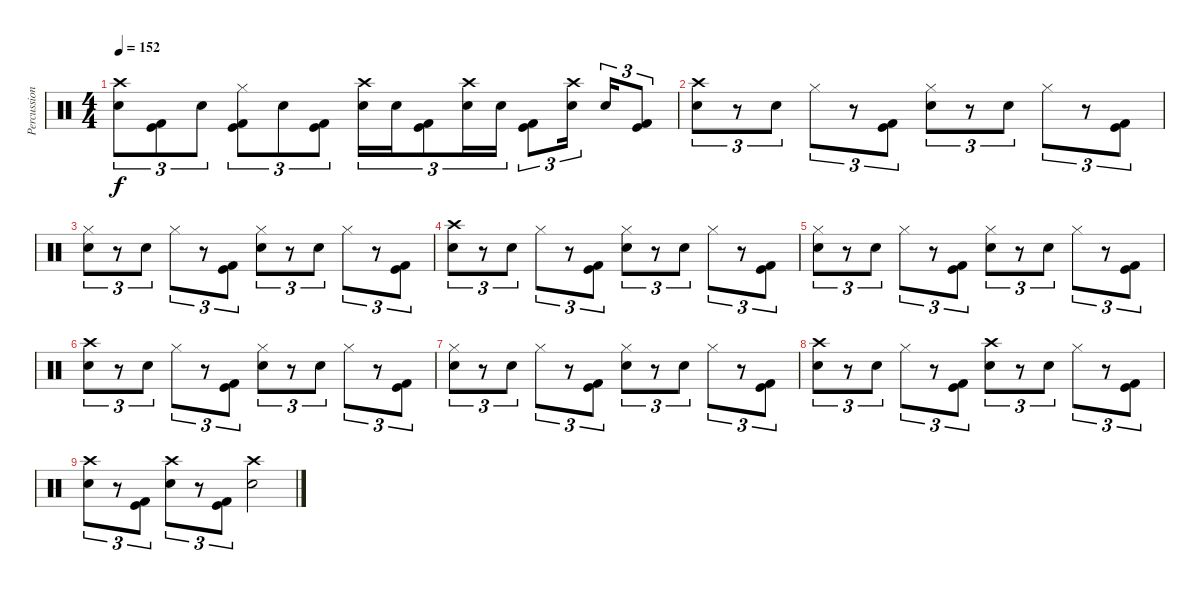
\track ("Percussion" "Percussion") {instrument percussion}
\staff {score}
\articulation defaults
\ts (4 4)
\tempo 152
\clef neutral
\ks c
("Crash high (hit)" "Electric Snare (hit)").8{tu (3 2) dy f} ("Kick (hit) 2" "Kick (hit)").8{tu (3 2)} "Electric Snare (hit)".8{tu (3 2)} ("Hi-Hat (closed)" "Kick (hit) 2" "Kick (hit)").8{tu (3 2)} "Electric Snare (hit)".8{tu (3 2)} ("Kick (hit) 2" "Kick (hit)").8{tu (3 2)} ("Crash high (hit)" "Electric Snare (hit)").16{tu (3 2)} "Electric Snare (hit)".16{tu (3 2)} ("Kick (hit) 2" "Kick (hit)").8{tu (3 2)} ("Crash high (hit)" "Electric Snare (hit)").16{tu (3 2)} "Electric Snare (hit)".16{tu (3 2)} ("Kick (hit) 2" "Kick (hit)").8{tu (3 2)} ("Crash high (hit)" "Electric Snare (hit)").16{tu (3 2) beam splitsecondary} "Electric Snare (hit)".16{tu (3 2)} ("Kick (hit) 2" "Kick (hit)").8{tu (3 2)} |
("Crash high (hit)" "Electric Snare (hit)").8{tu (3 2)} r.8{tu (3 2)} "Electric Snare (hit)".8{tu (3 2)} "Hi-Hat (closed)".8{tu (3 2)} r.8{tu (3 2)} ("Kick (hit) 2" "Kick (hit)").8{tu (3 2)} ("Hi-Hat (closed)" "Electric Snare (hit)").8{tu (3 2)} r.8{tu (3 2)} "Electric Snare (hit)".8{tu (3 2)} "Hi-Hat (closed)".8{tu (3 2)} r.8{tu (3 2)} ("Kick (hit) 2" "Kick (hit)").8{tu (3 2)} |
("Hi-Hat (closed)" "Electric Snare (hit)").8{tu (3 2)} r.8{tu (3 2)} "Electric Snare (hit)".8{tu (3 2)} "Hi-Hat (closed)".8{tu (3 2)} r.8{tu (3 2)} ("Kick (hit) 2" "Kick (hit)").8{tu (3 2)} ("Hi-Hat (closed)" "Electric Snare (hit)").8{tu (3 2)} r.8{tu (3 2)} "Electric Snare (hit)".8{tu (3 2)} "Hi-Hat (closed)".8{tu (3 2)} r.8{tu (3 2)} ("Kick (hit) 2" "Kick (hit)").8{tu (3 2)} |
("Crash high (hit)" "Electric Snare (hit)").8{tu (3 2)} r.8{tu (3 2)} "Electric Snare (hit)".8{tu (3 2)} "Hi-Hat (closed)".8{tu (3 2)} r.8{tu (3 2)} ("Kick (hit) 2" "Kick (hit)").8{tu (3 2)} ("Hi-Hat (closed)" "Electric Snare (hit)").8{tu (3 2)} r.8{tu (3 2)} "Electric Snare (hit)".8{tu (3 2)} "Hi-Hat (closed)".8{tu (3 2)} r.8{tu (3 2)} ("Kick (hit) 2" "Kick (hit)").8{tu (3 2)} |
("Hi-Hat (closed)" "Electric Snare (hit)").8{tu (3 2)} r.8{tu (3 2)} "Electric Snare (hit)".8{tu (3 2)} "Hi-Hat (closed)".8{tu (3 2)} r.8{tu (3 2)} ("Kick (hit) 2" "Kick (hit)").8{tu (3 2)} ("Hi-Hat (closed)" "Electric Snare (hit)").8{tu (3 2)} r.8{tu (3 2)} "Electric Snare (hit)".8{tu (3 2)} "Hi-Hat (closed)".8{tu (3 2)} r.8{tu (3 2)} ("Kick (hit) 2" "Kick (hit)").8{tu (3 2)} |
("Crash high (hit)" "Electric Snare (hit)").8{tu (3 2)} r.8{tu (3 2)} "Electric Snare (hit)".8{tu (3 2)} "Hi-Hat (closed)".8{tu (3 2)} r.8{tu (3 2)} ("Kick (hit) 2" "Kick (hit)").8{tu (3 2)} ("Hi-Hat (closed)" "Electric Snare (hit)").8{tu (3 2)} r.8{tu (3 2)} "Electric Snare (hit)".8{tu (3 2)} "Hi-Hat (closed)".8{tu (3 2)} r.8{tu (3 2)} ("Kick (hit) 2" "Kick (hit)").8{tu (3 2)} |
("Hi-Hat (closed)" "Electric Snare (hit)").8{tu (3 2)} r.8{tu (3 2)} "Electric Snare (hit)".8{tu (3 2)} "Hi-Hat (closed)".8{tu (3 2)} r.8{tu (3 2)} ("Kick (hit) 2" "Kick (hit)").8{tu (3 2)} ("Hi-Hat (closed)" "Electric Snare (hit)").8{tu (3 2)} r.8{tu (3 2)} "Electric Snare (hit)".8{tu (3 2)} "Hi-Hat (closed)".8{tu (3 2)} r.8{tu (3 2)} ("Kick (hit) 2" "Kick (hit)").8{tu (3 2)} |
("Crash high (hit)" "Electric Snare (hit)").8{tu (3 2)} r.8{tu (3 2)} "Electric Snare (hit)".8{tu (3 2)} "Hi-Hat (closed)".8{tu (3 2)} r.8{tu (3 2)} ("Kick (hit) 2" "Kick (hit)").8{tu (3 2)} ("Crash high (hit)" "Electric Snare (hit)").8{tu (3 2)} r.8{tu (3 2)} "Electric Snare (hit)".8{tu (3 2)} "Hi-Hat (closed)".8{tu (3 2)} r.8{tu (3 2)} ("Kick (hit) 2" "Kick (hit)").8{tu (3 2)} |
("Crash high (hit)" "Electric Snare (hit)").8{tu (3 2)} r.8{tu (3 2)} ("Kick (hit) 2" "Kick (hit)").8{tu (3 2)} ("Crash high (hit)" "Electric Snare (hit)").8{tu (3 2)} r.8{tu (3 2)} ("Kick (hit) 2" "Kick (hit)").8{tu (3 2)} ("Crash high (hit)" "Electric Snare (hit)").2
